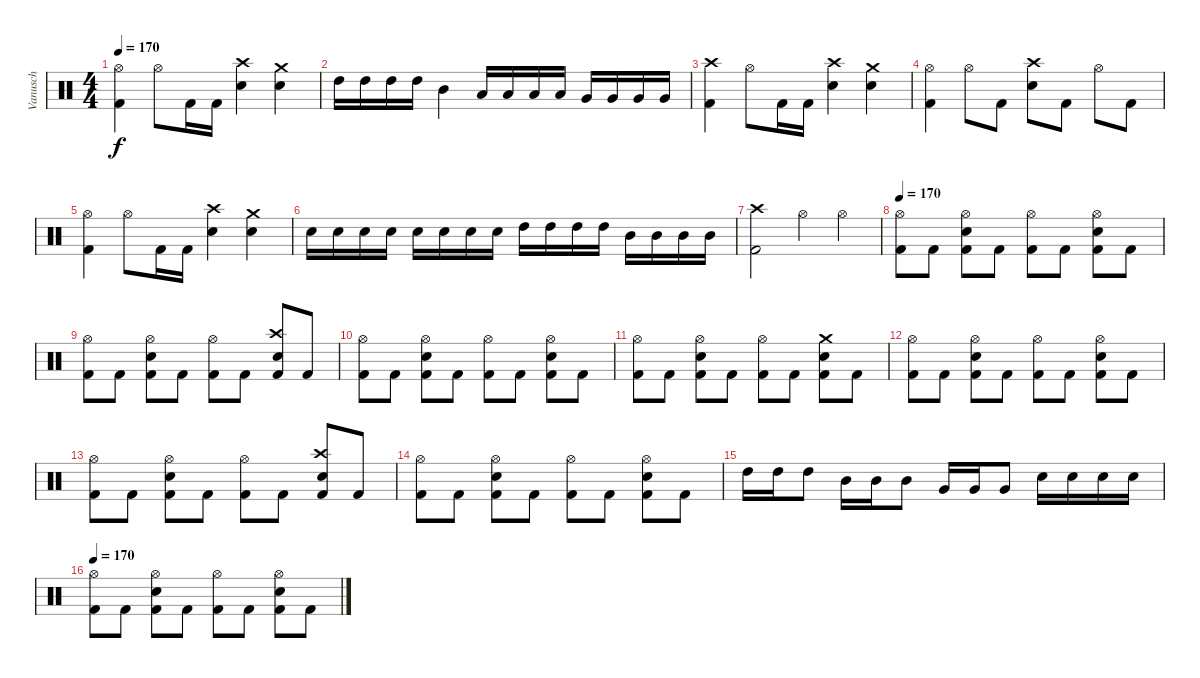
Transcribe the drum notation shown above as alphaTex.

\track ("Vanusch" "Vanusch") {instrument percussion}
\staff {score}
\articulation defaults
\ts (4 4)
\tempo 170
\clef neutral
\ks c
("Hi-Hat (open)" "Kick (hit) 2").4{dy f} "Hi-Hat (open)".8 "Kick (hit) 2".16 "Kick (hit) 2".16 ("Crash high (hit)" "Snare (hit) 2").4 ("Crash medium (hit)" "Snare (hit) 2").4 |
"High Tom (hit)".16 "High Tom (hit)".16 "High Tom (hit)".16 "High Tom (hit)".16 "Mid Tom (hit)".4 "Low Tom (hit)".16 "Low Tom (hit)".16 "Low Tom (hit)".16 "Low Tom (hit)".16 "Very Low Tom (hit)".16 "Very Low Tom (hit)".16 "Very Low Tom (hit)".16 "Very Low Tom (hit)".16 |
("Crash high (hit)" "Kick (hit) 2").4 "Hi-Hat (open)".8 "Kick (hit) 2".16 "Kick (hit) 2".16 ("Crash high (hit)" "Snare (hit) 2").4 ("Crash medium (hit)" "Snare (hit) 2").4 |
("Hi-Hat (open)" "Kick (hit) 2").4 "Hi-Hat (open)".8 "Kick (hit) 2".8 ("Crash high (hit)" "Snare (hit) 2").8 "Kick (hit) 2".8 "Hi-Hat (open)".8 "Kick (hit) 2".8 |
("Hi-Hat (open)" "Kick (hit) 2").4 "Hi-Hat (open)".8 "Kick (hit) 2".16 "Kick (hit) 2".16 ("Crash high (hit)" "Snare (hit) 2").4 ("Crash medium (hit)" "Snare (hit) 2").4 |
"Snare (hit) 2".16 "Snare (hit) 2".16 "Snare (hit) 2".16 "Snare (hit) 2".16 "Snare (hit) 2".16 "Snare (hit) 2".16 "Snare (hit) 2".16 "Snare (hit) 2".16 "High Tom (hit)".16 "High Tom (hit)".16 "High Tom (hit)".16 "High Tom (hit)".16 "Mid Tom (hit)".16 "Mid Tom (hit)".16 "Mid Tom (hit)".16 "Mid Tom (hit)".16 |
("Crash high (hit)" "Kick (hit) 2").2 "Hi-Hat (open)".4 "Hi-Hat (open)".4 |
\tempo 170
("Hi-Hat (open)" "Kick (hit) 2").8 "Kick (hit) 2".8 ("Hi-Hat (open)" "Snare (hit) 2" "Kick (hit) 2").8 "Kick (hit) 2".8 ("Hi-Hat (open)" "Kick (hit) 2").8 "Kick (hit) 2".8 ("Hi-Hat (open)" "Snare (hit) 2" "Kick (hit) 2").8 "Kick (hit) 2".8 |
("Hi-Hat (open)" "Kick (hit) 2").8 "Kick (hit) 2".8 ("Hi-Hat (open)" "Snare (hit) 2" "Kick (hit) 2").8 "Kick (hit) 2".8 ("Hi-Hat (open)" "Kick (hit) 2").8 "Kick (hit) 2".8 ("Crash high (hit)" "Snare (hit) 2" "Kick (hit) 2").8 "Kick (hit) 2".8 |
("Hi-Hat (open)" "Kick (hit) 2").8 "Kick (hit) 2".8 ("Hi-Hat (open)" "Snare (hit) 2" "Kick (hit) 2").8 "Kick (hit) 2".8 ("Hi-Hat (open)" "Kick (hit) 2").8 "Kick (hit) 2".8 ("Hi-Hat (open)" "Snare (hit) 2" "Kick (hit) 2").8 "Kick (hit) 2".8 |
("Hi-Hat (open)" "Kick (hit) 2").8 "Kick (hit) 2".8 ("Hi-Hat (open)" "Snare (hit) 2" "Kick (hit) 2").8 "Kick (hit) 2".8 ("Hi-Hat (open)" "Kick (hit) 2").8 "Kick (hit) 2".8 ("Crash medium (hit)" "Snare (hit) 2" "Kick (hit) 2").8 "Kick (hit) 2".8 |
("Hi-Hat (open)" "Kick (hit) 2").8 "Kick (hit) 2".8 ("Hi-Hat (open)" "Snare (hit) 2" "Kick (hit) 2").8 "Kick (hit) 2".8 ("Hi-Hat (open)" "Kick (hit) 2").8 "Kick (hit) 2".8 ("Hi-Hat (open)" "Snare (hit) 2" "Kick (hit) 2").8 "Kick (hit) 2".8 |
("Hi-Hat (open)" "Kick (hit) 2").8 "Kick (hit) 2".8 ("Hi-Hat (open)" "Snare (hit) 2" "Kick (hit) 2").8 "Kick (hit) 2".8 ("Hi-Hat (open)" "Kick (hit) 2").8 "Kick (hit) 2".8 ("Crash high (hit)" "Snare (hit) 2" "Kick (hit) 2").8 "Kick (hit) 2".8 |
("Hi-Hat (open)" "Kick (hit) 2").8 "Kick (hit) 2".8 ("Hi-Hat (open)" "Snare (hit) 2" "Kick (hit) 2").8 "Kick (hit) 2".8 ("Hi-Hat (open)" "Kick (hit) 2").8 "Kick (hit) 2".8 ("Hi-Hat (open)" "Snare (hit) 2" "Kick (hit) 2").8 "Kick (hit) 2".8 |
"High Tom (hit)".16 "High Tom (hit)".16 "High Tom (hit)".8 "Mid Tom (hit)".16 "Mid Tom (hit)".16 "Mid Tom (hit)".8 "Very Low Tom (hit)".16 "Very Low Tom (hit)".16 "Very Low Tom (hit)".8 "Snare (hit) 2".16 "Snare (hit) 2".16 "Snare (hit) 2".16 "Snare (hit) 2".16 |
\tempo 170
("Hi-Hat (open)" "Kick (hit) 2").8 "Kick (hit) 2".8 ("Hi-Hat (open)" "Snare (hit) 2" "Kick (hit) 2").8 "Kick (hit) 2".8 ("Hi-Hat (open)" "Kick (hit) 2").8 "Kick (hit) 2".8 ("Hi-Hat (open)" "Snare (hit) 2" "Kick (hit) 2").8 "Kick (hit) 2".8
